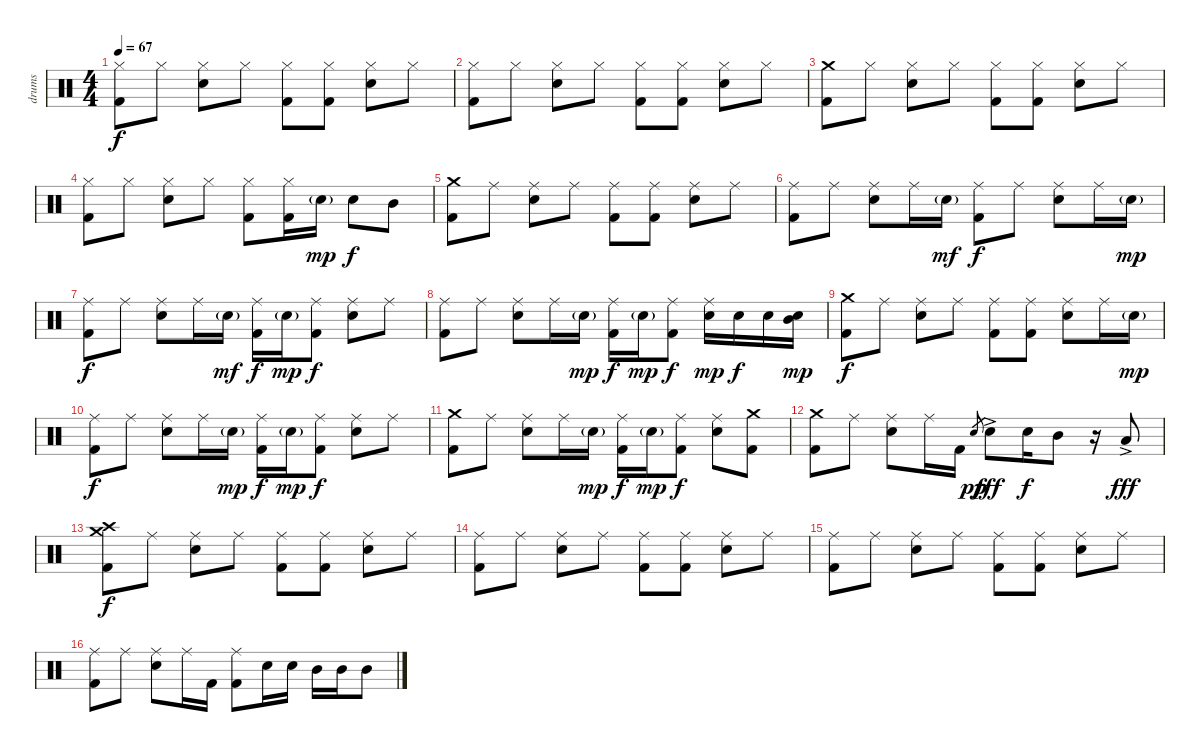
\track ("drums" "drums") {instrument percussion}
\staff {score}
\articulation defaults
\ts (4 4)
\tempo 67
\clef neutral
\ks c
("Hi-Hat (closed)" "Kick (hit) 2").8{dy f} "Hi-Hat (closed)".8 ("Hi-Hat (closed)" "Snare (hit) 2").8 "Hi-Hat (closed)".8 ("Hi-Hat (closed)" "Kick (hit) 2").8 ("Hi-Hat (closed)" "Kick (hit) 2").8 ("Hi-Hat (closed)" "Snare (hit) 2").8 "Hi-Hat (closed)".8 |
("Hi-Hat (closed)" "Kick (hit) 2").8 "Hi-Hat (closed)".8 ("Hi-Hat (closed)" "Snare (hit) 2").8 "Hi-Hat (closed)".8 ("Hi-Hat (closed)" "Kick (hit) 2").8 ("Hi-Hat (closed)" "Kick (hit) 2").8 ("Hi-Hat (closed)" "Snare (hit) 2").8 "Hi-Hat (closed)".8 |
("Crash medium (hit)" "Kick (hit) 2").8 "Hi-Hat (closed)".8 ("Hi-Hat (closed)" "Snare (hit) 2").8 "Hi-Hat (closed)".8 ("Hi-Hat (closed)" "Kick (hit) 2").8 ("Hi-Hat (closed)" "Kick (hit) 2").8 ("Hi-Hat (closed)" "Snare (hit) 2").8 "Hi-Hat (closed)".8 |
("Hi-Hat (closed)" "Kick (hit) 2").8 "Hi-Hat (closed)".8 ("Hi-Hat (closed)" "Snare (hit) 2").8 "Hi-Hat (closed)".8 ("Hi-Hat (closed)" "Kick (hit) 2").8 ("Hi-Hat (closed)" "Kick (hit) 2").16 "Snare (hit) 2"{g}.16{dy mp} "Snare (hit) 2".8{dy f} "Mid Tom (hit)".8 |
("Crash medium (hit)" "Kick (hit) 2").8 "Ride (middle)".8 ("Ride (middle)" "Snare (hit) 2").8 "Ride (middle)".8 ("Ride (middle)" "Kick (hit) 2").8 ("Ride (middle)" "Kick (hit) 2").8 ("Ride (middle)" "Snare (hit) 2").8 "Ride (middle)".8 |
("Ride (middle)" "Kick (hit) 2").8 "Ride (middle)".8 ("Ride (middle)" "Snare (hit) 2").8 "Ride (middle)".16 "Snare (hit) 2"{g}.16{dy mf} ("Ride (middle)" "Kick (hit) 2").8{dy f} "Ride (middle)".8 ("Ride (middle)" "Snare (hit) 2").8 "Ride (middle)".16 "Snare (hit) 2"{g}.16{dy mp} |
("Ride (middle)" "Kick (hit) 2").8{dy f} "Ride (middle)".8 ("Ride (middle)" "Snare (hit) 2").8 "Ride (middle)".16 "Snare (hit) 2"{g}.16{dy mf} ("Ride (middle)" "Kick (hit) 2").16{dy f} "Snare (hit) 2"{g}.16{dy mp} ("Ride (middle)" "Kick (hit) 2").8{dy f} ("Ride (middle)" "Snare (hit) 2").8 "Ride (middle)".8 |
("Ride (middle)" "Kick (hit) 2").8 "Ride (middle)".8 ("Ride (middle)" "Snare (hit) 2").8 "Ride (middle)".16 "Snare (hit) 2"{g}.16{dy mp} ("Ride (middle)" "Kick (hit) 2").16{dy f} "Snare (hit) 2"{g}.16{dy mp} ("Ride (middle)" "Kick (hit) 2").8{dy f} ("Ride (middle)" "Snare (hit) 2").16{dy mp} "Snare (hit) 2".16{dy f} "Snare (hit) 2".16 ("Mid Tom (hit)" "Snare (hit) 2").16{dy mp} |
("Crash medium (hit)" "Kick (hit) 2").8{dy f} "Ride (middle)".8 ("Ride (middle)" "Snare (hit) 2").8 "Ride (middle)".8 ("Ride (middle)" "Kick (hit) 2").8 ("Ride (middle)" "Kick (hit) 2").8 ("Ride (middle)" "Snare (hit) 2").8 "Ride (middle)".16 "Snare (hit) 2"{g}.16{dy mp} |
("Ride (middle)" "Kick (hit) 2").8{dy f} "Ride (middle)".8 ("Ride (middle)" "Snare (hit) 2").8 "Ride (middle)".16 "Snare (hit) 2"{g}.16{dy mp} ("Ride (middle)" "Kick (hit) 2").16{dy f} "Snare (hit) 2"{g}.16{dy mp} ("Ride (middle)" "Kick (hit) 2").8{dy f} ("Ride (middle)" "Snare (hit) 2").8 "Ride (middle)".8 |
("Crash medium (hit)" "Kick (hit) 2").8 "Ride (middle)".8 ("Ride (middle)" "Snare (hit) 2").8 "Ride (middle)".16 "Snare (hit) 2"{g}.16{dy mp} ("Ride (middle)" "Kick (hit) 2").16{dy f} "Snare (hit) 2"{g}.16{dy mp} ("Ride (middle)" "Kick (hit) 2").8{dy f} ("Ride (middle)" "Snare (hit) 2").8 ("Crash medium (hit)" "Kick (hit) 2").8{balance 2} |
("Crash medium (hit)" "Kick (hit) 2").8{balance 14} "Ride (middle)".8 ("Ride (middle)" "Snare (hit) 2").8 "Ride (middle)".16 "Kick (hit) 2".16 "Snare (hit) 2".8{gr dy pp} "Snare (hit) 2"{ac}.8{dy fff} "Snare (hit) 2".16{dy f} "Mid Tom (hit)".8 r.16 "Low Tom (hit)"{ac}.8{dy fff} |
("Crash medium (hit)" "Crash high (hit)" "Kick (hit) 2").8{dy f} "Ride (middle)".8 ("Ride (middle)" "Snare (hit) 2").8 "Ride (middle)".8 ("Ride (middle)" "Kick (hit) 2").8 ("Ride (middle)" "Kick (hit) 2").8 ("Ride (middle)" "Snare (hit) 2").8 "Ride (middle)".8 |
("Ride (middle)" "Kick (hit) 2").8 "Ride (middle)".8 ("Ride (middle)" "Snare (hit) 2").8 "Ride (middle)".8 ("Ride (middle)" "Kick (hit) 2").8 ("Ride (middle)" "Kick (hit) 2").8 ("Ride (middle)" "Snare (hit) 2").8 "Ride (middle)".8 |
("Ride (middle)" "Kick (hit) 2").8 "Ride (middle)".8 ("Ride (middle)" "Snare (hit) 2").8 "Ride (middle)".8 ("Ride (middle)" "Kick (hit) 2").8 ("Ride (middle)" "Kick (hit) 2").8 ("Ride (middle)" "Snare (hit) 2").8 "Ride (middle)".8 |
("Ride (middle)" "Kick (hit) 2").8 "Ride (middle)".8 ("Ride (middle)" "Snare (hit) 2").8 "Ride (middle)".16 "Kick (hit) 2".16 ("Ride (middle)" "Kick (hit) 2").8 "Snare (hit) 2".16 "Snare (hit) 2".16 "Mid Tom (hit)".16 "Mid Tom (hit)".16 "Mid Tom (hit)".8
